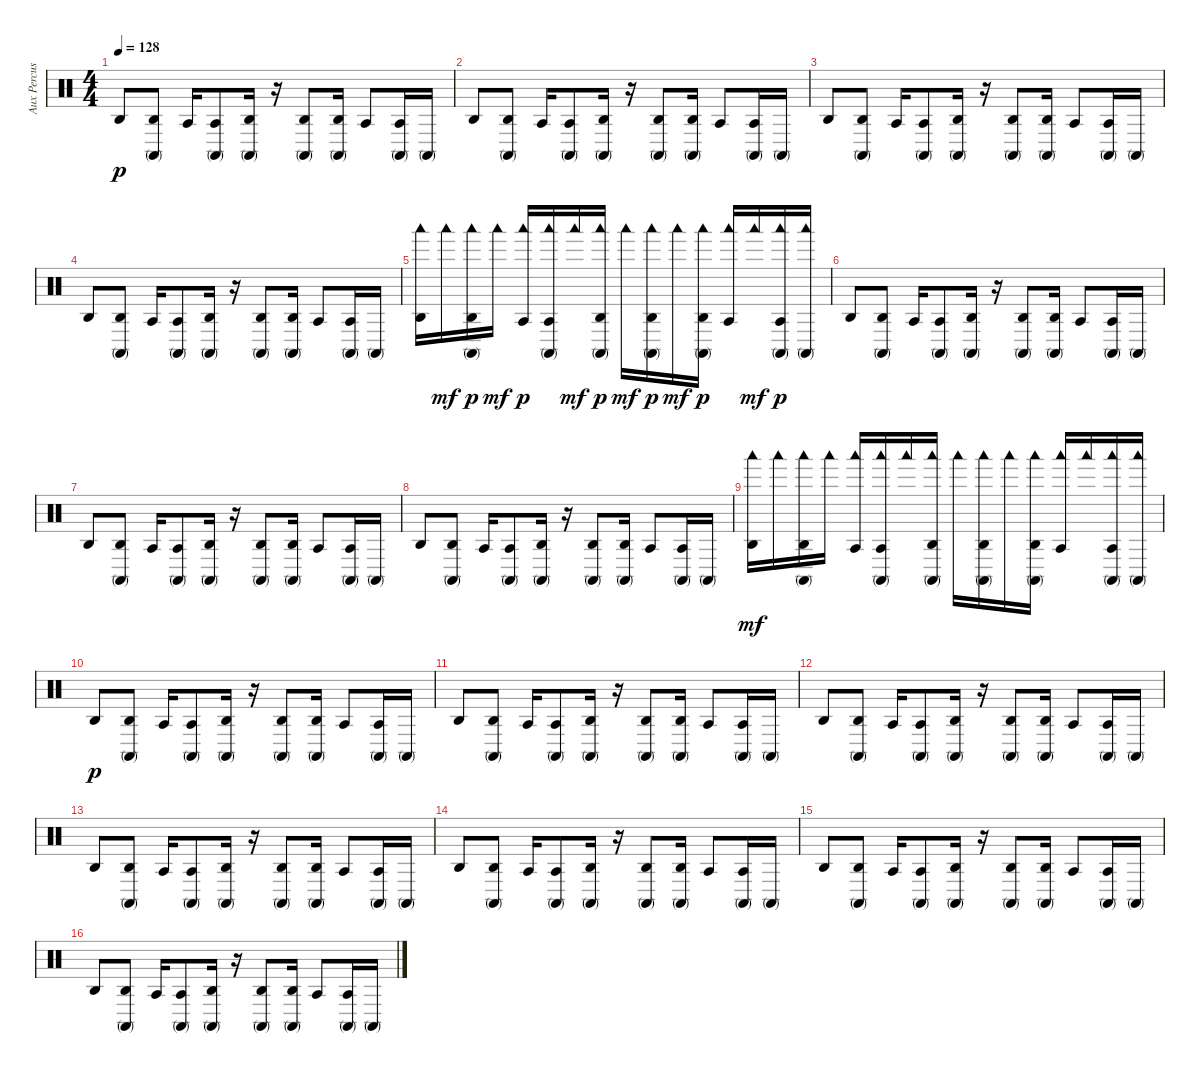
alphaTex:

\track ("Aux Percussion" "Aux Percus") {instrument percussion}
\staff {score}
\articulation defaults
\ts (4 4)
\tempo 128
\clef neutral
\ks c "Agogo high (hit)".8{dy p}
("Agogo high (hit)" "Conga high (mute)").8 "Agogo tow (hit)".16 ("Agogo tow (hit)" "Conga high (mute)").8 ("Conga high (mute)" "Agogo high (hit)").16 r.16 ("Conga high (mute)" "Agogo high (hit)").8 ("Agogo high (hit)" "Conga high (mute)").16 "Agogo tow (hit)".8 ("Conga high (mute)" "Agogo tow (hit)").16 "Conga high (mute)".16 |
"Agogo high (hit)".8 ("Conga high (mute)" "Agogo high (hit)").8 "Agogo tow (hit)".16 ("Agogo tow (hit)" "Conga high (mute)").8 ("Agogo high (hit)" "Conga high (mute)").16 r.16 ("Agogo high (hit)" "Conga high (mute)").8 ("Conga high (mute)" "Agogo high (hit)").16 "Agogo tow (hit)".8 ("Agogo tow (hit)" "Conga high (mute)").16 "Conga high (mute)".16 |
"Agogo high (hit)".8 ("Conga high (mute)" "Agogo high (hit)").8 "Agogo tow (hit)".16 ("Conga high (mute)" "Agogo tow (hit)").8 ("Agogo high (hit)" "Conga high (mute)").16 r.16 ("Agogo high (hit)" "Conga high (mute)").8 ("Conga high (mute)" "Agogo high (hit)").16 "Agogo tow (hit)".8 ("Agogo tow (hit)" "Conga high (mute)").16 "Conga high (mute)".16 |
"Agogo high (hit)".8 ("Agogo high (hit)" "Conga high (mute)").8 "Agogo tow (hit)".16 ("Conga high (mute)" "Agogo tow (hit)").8 ("Conga high (mute)" "Agogo high (hit)").16 r.16 ("Conga high (mute)" "Agogo high (hit)").8 ("Agogo high (hit)" "Conga high (mute)").16 "Agogo tow (hit)".8 ("Conga high (mute)" "Agogo tow (hit)").16 "Conga high (mute)".16 |
("Woodblock low (hit)" "Agogo high (hit)").16 "Woodblock low (hit)".16{dy mf} ("Woodblock low (hit)" "Agogo high (hit)" "Conga high (mute)").16{dy p} "Woodblock low (hit)".16{dy mf} ("Woodblock low (hit)" "Agogo tow (hit)").16{dy p} ("Woodblock low (hit)" "Agogo tow (hit)" "Conga high (mute)").16 "Woodblock low (hit)".16{dy mf} ("Woodblock low (hit)" "Conga high (mute)" "Agogo high (hit)").16{dy p} "Woodblock low (hit)".16{dy mf} ("Woodblock low (hit)" "Conga high (mute)" "Agogo high (hit)").16{dy p} "Woodblock low (hit)".16{dy mf} ("Woodblock low (hit)" "Agogo high (hit)" "Conga high (mute)").16{dy p} ("Woodblock low (hit)" "Agogo tow (hit)").16 "Woodblock low (hit)".16{dy mf} ("Woodblock low (hit)" "Conga high (mute)" "Agogo tow (hit)").16{dy p} ("Woodblock low (hit)" "Conga high (mute)").16 |
"Agogo high (hit)".8 ("Conga high (mute)" "Agogo high (hit)").8 "Agogo tow (hit)".16 ("Agogo tow (hit)" "Conga high (mute)").8 ("Agogo high (hit)" "Conga high (mute)").16 r.16 ("Agogo high (hit)" "Conga high (mute)").8 ("Conga high (mute)" "Agogo high (hit)").16 "Agogo tow (hit)".8 ("Agogo tow (hit)" "Conga high (mute)").16 "Conga high (mute)".16 |
"Agogo high (hit)".8 ("Conga high (mute)" "Agogo high (hit)").8 "Agogo tow (hit)".16 ("Conga high (mute)" "Agogo tow (hit)").8 ("Agogo high (hit)" "Conga high (mute)").16 r.16 ("Agogo high (hit)" "Conga high (mute)").8 ("Conga high (mute)" "Agogo high (hit)").16 "Agogo tow (hit)".8 ("Agogo tow (hit)" "Conga high (mute)").16 "Conga high (mute)".16 |
"Agogo high (hit)".8 ("Agogo high (hit)" "Conga high (mute)").8 "Agogo tow (hit)".16 ("Conga high (mute)" "Agogo tow (hit)").8 ("Conga high (mute)" "Agogo high (hit)").16 r.16 ("Conga high (mute)" "Agogo high (hit)").8 ("Agogo high (hit)" "Conga high (mute)").16 "Agogo tow (hit)".8 ("Conga high (mute)" "Agogo tow (hit)").16 "Conga high (mute)".16 |
("Agogo high (hit)" "Woodblock low (hit)").16{dy mf} "Woodblock low (hit)".16 ("Conga high (mute)" "Agogo high (hit)" "Woodblock low (hit)").16 "Woodblock low (hit)".16 ("Agogo tow (hit)" "Woodblock low (hit)").16 ("Conga high (mute)" "Agogo tow (hit)" "Woodblock low (hit)").16 "Woodblock low (hit)".16 ("Agogo high (hit)" "Conga high (mute)" "Woodblock low (hit)").16 "Woodblock low (hit)".16 ("Agogo high (hit)" "Conga high (mute)" "Woodblock low (hit)").16 "Woodblock low (hit)".16 ("Conga high (mute)" "Agogo high (hit)" "Woodblock low (hit)").16 ("Agogo tow (hit)" "Woodblock low (hit)").16 "Woodblock low (hit)".16 ("Agogo tow (hit)" "Conga high (mute)" "Woodblock low (hit)").16 ("Conga high (mute)" "Woodblock low (hit)").16 |
"Agogo high (hit)".8{dy p} ("Conga high (mute)" "Agogo high (hit)").8 "Agogo tow (hit)".16 ("Agogo tow (hit)" "Conga high (mute)").8 ("Agogo high (hit)" "Conga high (mute)").16 r.16 ("Agogo high (hit)" "Conga high (mute)").8 ("Conga high (mute)" "Agogo high (hit)").16 "Agogo tow (hit)".8 ("Agogo tow (hit)" "Conga high (mute)").16 "Conga high (mute)".16 |
"Agogo high (hit)".8 ("Conga high (mute)" "Agogo high (hit)").8 "Agogo tow (hit)".16 ("Conga high (mute)" "Agogo tow (hit)").8 ("Agogo high (hit)" "Conga high (mute)").16 r.16 ("Agogo high (hit)" "Conga high (mute)").8 ("Conga high (mute)" "Agogo high (hit)").16 "Agogo tow (hit)".8 ("Agogo tow (hit)" "Conga high (mute)").16 "Conga high (mute)".16 |
"Agogo high (hit)".8 ("Agogo high (hit)" "Conga high (mute)").8 "Agogo tow (hit)".16 ("Conga high (mute)" "Agogo tow (hit)").8 ("Conga high (mute)" "Agogo high (hit)").16 r.16 ("Conga high (mute)" "Agogo high (hit)").8 ("Agogo high (hit)" "Conga high (mute)").16 "Agogo tow (hit)".8 ("Conga high (mute)" "Agogo tow (hit)").16 "Conga high (mute)".16 |
"Agogo high (hit)".8 ("Agogo high (hit)" "Conga high (mute)").8 "Agogo tow (hit)".16 ("Agogo tow (hit)" "Conga high (mute)").8 ("Conga high (mute)" "Agogo high (hit)").16 r.16 ("Conga high (mute)" "Agogo high (hit)").8 ("Agogo high (hit)" "Conga high (mute)").16 "Agogo tow (hit)".8 ("Conga high (mute)" "Agogo tow (hit)").16 "Conga high (mute)".16 |
"Agogo high (hit)".8 ("Conga high (mute)" "Agogo high (hit)").8 "Agogo tow (hit)".16 ("Agogo tow (hit)" "Conga high (mute)").8 ("Agogo high (hit)" "Conga high (mute)").16 r.16 ("Agogo high (hit)" "Conga high (mute)").8 ("Conga high (mute)" "Agogo high (hit)").16 "Agogo tow (hit)".8 ("Agogo tow (hit)" "Conga high (mute)").16 "Conga high (mute)".16 |
"Agogo high (hit)".8 ("Conga high (mute)" "Agogo high (hit)").8 "Agogo tow (hit)".16 ("Conga high (mute)" "Agogo tow (hit)").8 ("Agogo high (hit)" "Conga high (mute)").16 r.16 ("Agogo high (hit)" "Conga high (mute)").8 ("Conga high (mute)" "Agogo high (hit)").16 "Agogo tow (hit)".8 ("Agogo tow (hit)" "Conga high (mute)").16 "Conga high (mute)".16 |
"Agogo high (hit)".8 ("Conga high (mute)" "Agogo high (hit)").8 "Agogo tow (hit)".16 ("Conga high (mute)" "Agogo tow (hit)").8 ("Agogo high (hit)" "Conga high (mute)").16 r.16 ("Agogo high (hit)" "Conga high (mute)").8 ("Conga high (mute)" "Agogo high (hit)").16 "Agogo tow (hit)".8 ("Agogo tow (hit)" "Conga high (mute)").16 "Conga high (mute)".16
